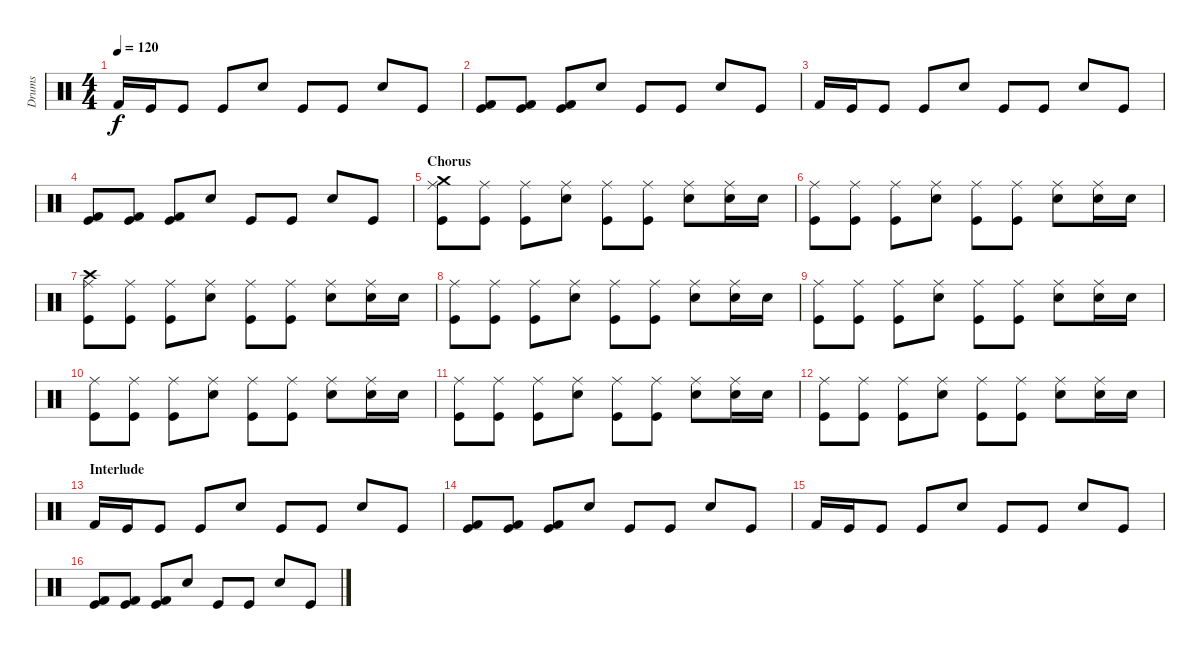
\track ("Drums" "Drums") {instrument percussion}
\staff {score}
\articulation defaults
\ts (4 4)
\tempo 120
\clef neutral
\ks c "Kick (hit) 2".16{dy f} "Kick (hit)".16 "Kick (hit)".8 "Kick (hit)".8 "Electric Snare (hit)".8 "Kick (hit)".8 "Kick (hit)".8 "Electric Snare (hit)".8 "Kick (hit)".8
|
("Kick (hit) 2" "Kick (hit)").8 ("Kick (hit) 2" "Kick (hit)").8 ("Kick (hit) 2" "Kick (hit)").8 "Electric Snare (hit)".8 "Kick (hit)".8 "Kick (hit)".8 "Electric Snare (hit)".8 "Kick (hit)".8 |
"Kick (hit) 2".16 "Kick (hit)".16 "Kick (hit)".8 "Kick (hit)".8 "Electric Snare (hit)".8 "Kick (hit)".8 "Kick (hit)".8 "Electric Snare (hit)".8 "Kick (hit)".8 |
("Kick (hit) 2" "Kick (hit)").8 ("Kick (hit) 2" "Kick (hit)").8 ("Kick (hit) 2" "Kick (hit)").8 "Electric Snare (hit)".8 "Kick (hit)".8 "Kick (hit)".8 "Electric Snare (hit)".8 "Kick (hit)".8 |
\section ("" "Chorus")
("Ride (middle)" "Crash medium (hit)" "Kick (hit)").8 ("Ride (middle)" "Kick (hit)").8 ("Ride (middle)" "Kick (hit)").8 ("Ride (middle)" "Electric Snare (hit)").8 ("Ride (middle)" "Kick (hit)").8 ("Ride (middle)" "Kick (hit)").8 ("Ride (middle)" "Electric Snare (hit)").8 ("Ride (middle)" "Electric Snare (hit)").16 "Electric Snare (hit)".16 |
("Ride (middle)" "Kick (hit)").8 ("Ride (middle)" "Kick (hit)").8 ("Ride (middle)" "Kick (hit)").8 ("Ride (middle)" "Electric Snare (hit)").8 ("Ride (middle)" "Kick (hit)").8 ("Ride (middle)" "Kick (hit)").8 ("Ride (middle)" "Electric Snare (hit)").8 ("Ride (middle)" "Electric Snare (hit)").16 "Electric Snare (hit)".16 |
("Ride (middle)" "Crash high (hit)" "Kick (hit)").8 ("Ride (middle)" "Kick (hit)").8 ("Ride (middle)" "Kick (hit)").8 ("Ride (middle)" "Electric Snare (hit)").8 ("Ride (middle)" "Kick (hit)").8 ("Ride (middle)" "Kick (hit)").8 ("Ride (middle)" "Electric Snare (hit)").8 ("Ride (middle)" "Electric Snare (hit)").16 "Electric Snare (hit)".16 |
("Ride (middle)" "Kick (hit)").8 ("Ride (middle)" "Kick (hit)").8 ("Ride (middle)" "Kick (hit)").8 ("Ride (middle)" "Electric Snare (hit)").8 ("Ride (middle)" "Kick (hit)").8 ("Ride (middle)" "Kick (hit)").8 ("Ride (middle)" "Electric Snare (hit)").8 ("Ride (middle)" "Electric Snare (hit)").16 "Electric Snare (hit)".16 |
("Ride (middle)" "Kick (hit)").8 ("Ride (middle)" "Kick (hit)").8 ("Ride (middle)" "Kick (hit)").8 ("Ride (middle)" "Electric Snare (hit)").8 ("Ride (middle)" "Kick (hit)").8 ("Ride (middle)" "Kick (hit)").8 ("Ride (middle)" "Electric Snare (hit)").8 ("Ride (middle)" "Electric Snare (hit)").16 "Electric Snare (hit)".16 |
("Ride (middle)" "Kick (hit)").8 ("Ride (middle)" "Kick (hit)").8 ("Ride (middle)" "Kick (hit)").8 ("Ride (middle)" "Electric Snare (hit)").8 ("Ride (middle)" "Kick (hit)").8 ("Ride (middle)" "Kick (hit)").8 ("Ride (middle)" "Electric Snare (hit)").8 ("Ride (middle)" "Electric Snare (hit)").16 "Electric Snare (hit)".16 |
("Ride (middle)" "Kick (hit)").8 ("Ride (middle)" "Kick (hit)").8 ("Ride (middle)" "Kick (hit)").8 ("Ride (middle)" "Electric Snare (hit)").8 ("Ride (middle)" "Kick (hit)").8 ("Ride (middle)" "Kick (hit)").8 ("Ride (middle)" "Electric Snare (hit)").8 ("Ride (middle)" "Electric Snare (hit)").16 "Electric Snare (hit)".16 |
("Ride (middle)" "Kick (hit)").8 ("Ride (middle)" "Kick (hit)").8 ("Ride (middle)" "Kick (hit)").8 ("Ride (middle)" "Electric Snare (hit)").8 ("Ride (middle)" "Kick (hit)").8 ("Ride (middle)" "Kick (hit)").8 ("Ride (middle)" "Electric Snare (hit)").8 ("Ride (middle)" "Electric Snare (hit)").16 "Electric Snare (hit)".16 |
\section ("" "Interlude")
"Kick (hit) 2".16 "Kick (hit)".16 "Kick (hit)".8 "Kick (hit)".8 "Electric Snare (hit)".8 "Kick (hit)".8 "Kick (hit)".8 "Electric Snare (hit)".8 "Kick (hit)".8 |
("Kick (hit) 2" "Kick (hit)").8 ("Kick (hit) 2" "Kick (hit)").8 ("Kick (hit) 2" "Kick (hit)").8 "Electric Snare (hit)".8 "Kick (hit)".8 "Kick (hit)".8 "Electric Snare (hit)".8 "Kick (hit)".8 |
"Kick (hit) 2".16 "Kick (hit)".16 "Kick (hit)".8 "Kick (hit)".8 "Electric Snare (hit)".8 "Kick (hit)".8 "Kick (hit)".8 "Electric Snare (hit)".8 "Kick (hit)".8 |
("Kick (hit) 2" "Kick (hit)").8 ("Kick (hit) 2" "Kick (hit)").8 ("Kick (hit) 2" "Kick (hit)").8 "Electric Snare (hit)".8 "Kick (hit)".8 "Kick (hit)".8 "Electric Snare (hit)".8 "Kick (hit)".8
